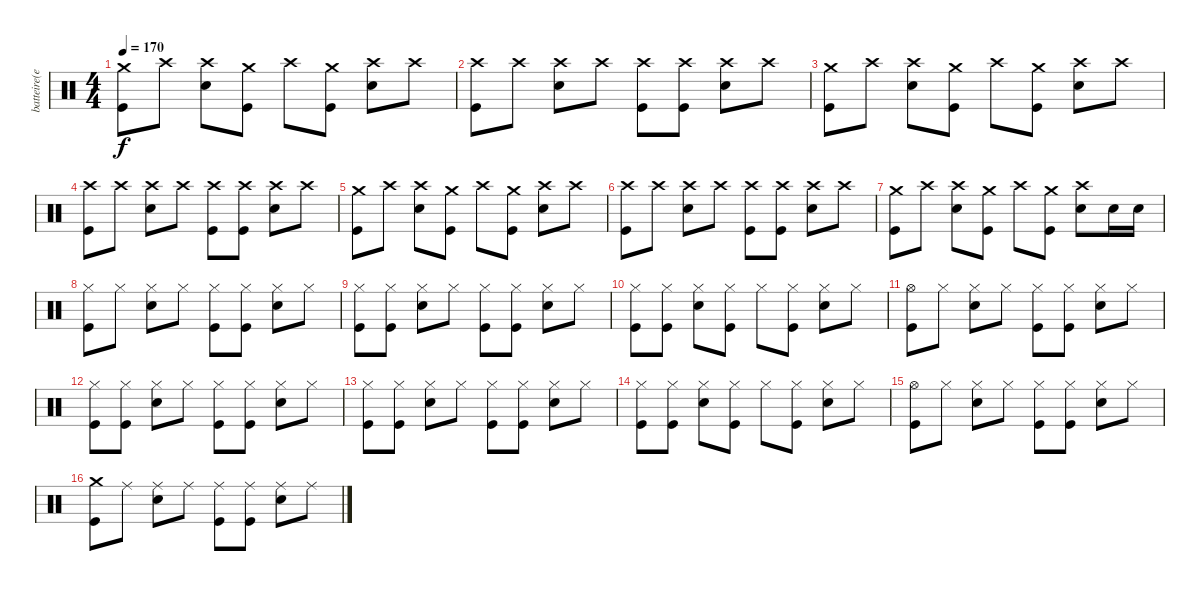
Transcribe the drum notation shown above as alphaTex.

\track ("batteire(eric)" "batteire(e") {instrument percussion}
\staff {score}
\articulation defaults
\ts (4 4)
\tempo 170
\clef neutral
\ks c
("Crash medium (hit)" "Kick (hit)").8{dy f} "Crash high (hit)".8 ("Crash high (hit)" "Snare (hit) 2").8 ("Crash medium (hit)" "Kick (hit)").8 "Crash high (hit)".8 ("Crash medium (hit)" "Kick (hit)").8 ("Crash high (hit)" "Snare (hit) 2").8 "Crash high (hit)".8 |
("Crash high (hit)" "Kick (hit)").8 "Crash high (hit)".8 ("Crash high (hit)" "Snare (hit) 2").8 "Crash high (hit)".8 ("Crash high (hit)" "Kick (hit)").8 ("Crash high (hit)" "Kick (hit)").8 ("Crash high (hit)" "Snare (hit) 2").8 "Crash high (hit)".8 |
("Crash medium (hit)" "Kick (hit)").8 "Crash high (hit)".8 ("Crash high (hit)" "Snare (hit) 2").8 ("Crash medium (hit)" "Kick (hit)").8 "Crash high (hit)".8 ("Crash medium (hit)" "Kick (hit)").8 ("Crash high (hit)" "Snare (hit) 2").8 "Crash high (hit)".8 |
("Crash high (hit)" "Kick (hit)").8 "Crash high (hit)".8 ("Crash high (hit)" "Snare (hit) 2").8 "Crash high (hit)".8 ("Crash high (hit)" "Kick (hit)").8 ("Crash high (hit)" "Kick (hit)").8 ("Crash high (hit)" "Snare (hit) 2").8 "Crash high (hit)".8 |
("Crash medium (hit)" "Kick (hit)").8 "Crash high (hit)".8 ("Crash high (hit)" "Snare (hit) 2").8 ("Crash medium (hit)" "Kick (hit)").8 "Crash high (hit)".8 ("Crash medium (hit)" "Kick (hit)").8 ("Crash high (hit)" "Snare (hit) 2").8 "Crash high (hit)".8 |
("Crash high (hit)" "Kick (hit)").8 "Crash high (hit)".8 ("Crash high (hit)" "Snare (hit) 2").8 "Crash high (hit)".8 ("Crash high (hit)" "Kick (hit)").8 ("Crash high (hit)" "Kick (hit)").8 ("Crash high (hit)" "Snare (hit) 2").8 "Crash high (hit)".8 |
("Crash medium (hit)" "Kick (hit)").8 "Crash high (hit)".8 ("Crash high (hit)" "Snare (hit) 2").8 ("Crash medium (hit)" "Kick (hit)").8 "Crash high (hit)".8 ("Crash medium (hit)" "Kick (hit)").8 ("Crash high (hit)" "Snare (hit) 2").8 "Snare (hit) 2".16 "Snare (hit) 2".16 |
("Hi-Hat (closed)" "Kick (hit)").8 "Hi-Hat (closed)".8 ("Hi-Hat (closed)" "Snare (hit) 2").8 "Hi-Hat (closed)".8 ("Hi-Hat (closed)" "Kick (hit)").8 ("Hi-Hat (closed)" "Kick (hit)").8 ("Hi-Hat (closed)" "Snare (hit) 2").8 "Hi-Hat (closed)".8 |
("Hi-Hat (closed)" "Kick (hit)").8 ("Hi-Hat (closed)" "Kick (hit)").8 ("Hi-Hat (closed)" "Snare (hit) 2").8 "Hi-Hat (closed)".8 ("Hi-Hat (closed)" "Kick (hit)").8 ("Hi-Hat (closed)" "Kick (hit)").8 ("Hi-Hat (closed)" "Snare (hit) 2").8 "Hi-Hat (closed)".8 |
("Hi-Hat (closed)" "Kick (hit)").8 ("Hi-Hat (closed)" "Kick (hit)").8 ("Hi-Hat (closed)" "Snare (hit) 2").8 ("Hi-Hat (closed)" "Kick (hit)").8 "Hi-Hat (closed)".8 ("Hi-Hat (closed)" "Kick (hit)").8 ("Hi-Hat (closed)" "Snare (hit) 2").8 "Hi-Hat (closed)".8 |
("Hi-Hat (open)" "Kick (hit)").8 "Hi-Hat (closed)".8 ("Hi-Hat (closed)" "Snare (hit) 2").8 "Hi-Hat (closed)".8 ("Hi-Hat (closed)" "Kick (hit)").8 ("Hi-Hat (closed)" "Kick (hit)").8 ("Hi-Hat (closed)" "Snare (hit) 2").8 "Hi-Hat (closed)".8 |
("Hi-Hat (closed)" "Kick (hit)").8 ("Hi-Hat (closed)" "Kick (hit)").8 ("Hi-Hat (closed)" "Snare (hit) 2").8 "Hi-Hat (closed)".8 ("Hi-Hat (closed)" "Kick (hit)").8 ("Hi-Hat (closed)" "Kick (hit)").8 ("Hi-Hat (closed)" "Snare (hit) 2").8 "Hi-Hat (closed)".8 |
("Hi-Hat (closed)" "Kick (hit)").8 ("Hi-Hat (closed)" "Kick (hit)").8 ("Hi-Hat (closed)" "Snare (hit) 2").8 "Hi-Hat (closed)".8 ("Hi-Hat (closed)" "Kick (hit)").8 ("Hi-Hat (closed)" "Kick (hit)").8 ("Hi-Hat (closed)" "Snare (hit) 2").8 "Hi-Hat (closed)".8 |
("Hi-Hat (closed)" "Kick (hit)").8 ("Hi-Hat (closed)" "Kick (hit)").8 ("Hi-Hat (closed)" "Snare (hit) 2").8 ("Hi-Hat (closed)" "Kick (hit)").8 "Hi-Hat (closed)".8 ("Hi-Hat (closed)" "Kick (hit)").8 ("Hi-Hat (closed)" "Snare (hit) 2").8 "Hi-Hat (closed)".8 |
("Hi-Hat (open)" "Kick (hit)").8 "Hi-Hat (closed)".8 ("Hi-Hat (closed)" "Snare (hit) 2").8 "Hi-Hat (closed)".8 ("Hi-Hat (closed)" "Kick (hit)").8 ("Hi-Hat (closed)" "Kick (hit)").8 ("Hi-Hat (closed)" "Snare (hit) 2").8 "Hi-Hat (closed)".8 |
("Crash medium (hit)" "Kick (hit)").8 "Ride (middle)".8 ("Ride (middle)" "Snare (hit) 2").8 "Ride (middle)".8 ("Ride (middle)" "Kick (hit)").8 ("Ride (middle)" "Kick (hit)").8 ("Ride (middle)" "Snare (hit) 2").8 "Ride (middle)".8
